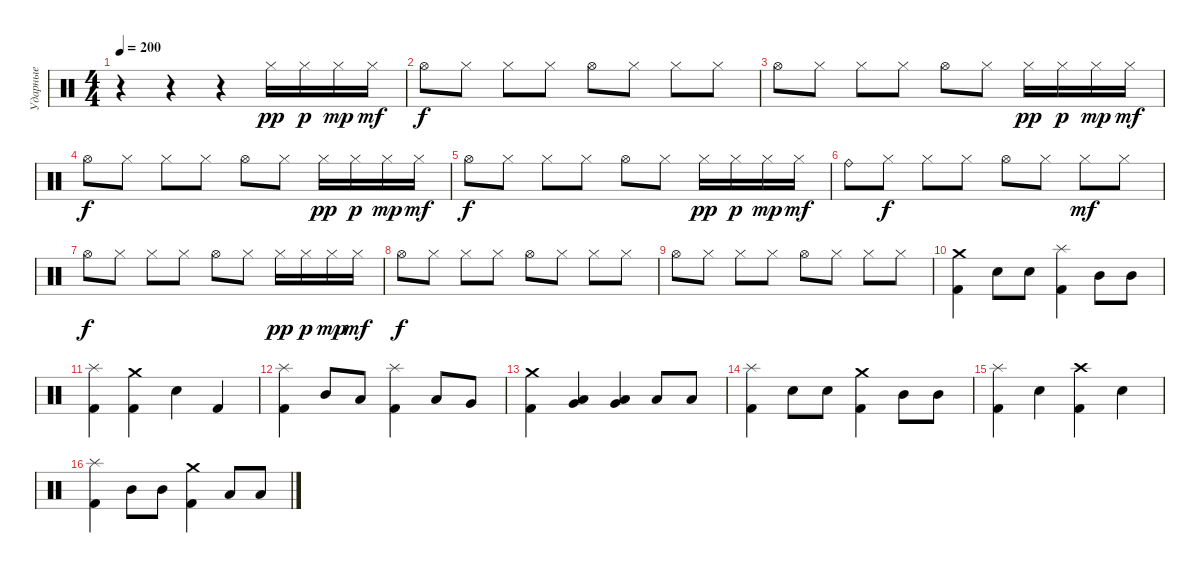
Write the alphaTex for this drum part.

\track ("Ударные" "Ударные") {instrument percussion}
\staff {score}
\articulation defaults
\ts (4 4)
\tempo 200
\clef neutral
\ks c
r.4{dy pp} r.4 r.4 "Hi-Hat (closed)".16 "Hi-Hat (closed)".16{dy p} "Hi-Hat (closed)".16{dy mp} "Hi-Hat (closed)".16{dy mf} |
"Hi-Hat (open)".8{dy f} "Hi-Hat (closed)".8 "Hi-Hat (closed)".8 "Hi-Hat (closed)".8 "Hi-Hat (open)".8 "Hi-Hat (closed)".8 "Hi-Hat (closed)".8 "Hi-Hat (closed)".8 |
"Hi-Hat (open)".8 "Hi-Hat (closed)".8 "Hi-Hat (closed)".8 "Hi-Hat (closed)".8 "Hi-Hat (open)".8 "Hi-Hat (closed)".8 "Hi-Hat (closed)".16{dy pp} "Hi-Hat (closed)".16{dy p} "Hi-Hat (closed)".16{dy mp} "Hi-Hat (closed)".16{dy mf} |
"Hi-Hat (open)".8{dy f} "Hi-Hat (closed)".8 "Hi-Hat (closed)".8 "Hi-Hat (closed)".8 "Hi-Hat (open)".8 "Hi-Hat (closed)".8 "Hi-Hat (closed)".16{dy pp} "Hi-Hat (closed)".16{dy p} "Hi-Hat (closed)".16{dy mp} "Hi-Hat (closed)".16{dy mf} |
"Hi-Hat (open)".8{dy f} "Hi-Hat (closed)".8 "Hi-Hat (closed)".8 "Hi-Hat (closed)".8 "Hi-Hat (open)".8 "Hi-Hat (closed)".8 "Hi-Hat (closed)".16{dy pp} "Hi-Hat (closed)".16{dy p} "Hi-Hat (closed)".16{dy mp} "Hi-Hat (closed)".16{dy mf} |
"Ride (bell)".8 "Hi-Hat (closed)".8{dy f} "Hi-Hat (closed)".8 "Hi-Hat (closed)".8 "Hi-Hat (open)".8 "Hi-Hat (closed)".8 "Hi-Hat (closed)".8{dy mf} "Hi-Hat (closed)".8 |
"Hi-Hat (open)".8{dy f} "Hi-Hat (closed)".8 "Hi-Hat (closed)".8 "Hi-Hat (closed)".8 "Hi-Hat (open)".8 "Hi-Hat (closed)".8 "Hi-Hat (closed)".16{dy pp} "Hi-Hat (closed)".16{dy p} "Hi-Hat (closed)".16{dy mp} "Hi-Hat (closed)".16{dy mf} |
"Hi-Hat (open)".8{dy f} "Hi-Hat (closed)".8 "Hi-Hat (closed)".8 "Hi-Hat (closed)".8 "Hi-Hat (open)".8 "Hi-Hat (closed)".8 "Hi-Hat (closed)".8 "Hi-Hat (closed)".8 |
"Hi-Hat (open)".8 "Hi-Hat (closed)".8 "Hi-Hat (closed)".8 "Hi-Hat (closed)".8 "Hi-Hat (open)".8 "Hi-Hat (closed)".8 "Hi-Hat (closed)".8 "Hi-Hat (closed)".8 |
("Crash medium (hit)" "Kick (hit) 2").4 "Electric Snare (hit)".8 "Electric Snare (hit)".8 ("Splash (hit)" "Kick (hit) 2").4 "Mid Tom (hit)".8 "Mid Tom (hit)".8 |
("Splash (hit)" "Kick (hit) 2").4 ("Crash medium (hit)" "Kick (hit) 2").4 "Electric Snare (hit)".4 "Kick (hit) 2".4 |
("Splash (hit)" "Kick (hit) 2").4 "Mid Tom (hit)".8 "Low Tom (hit)".8 ("Splash (hit)" "Kick (hit) 2").4 "Low Tom (hit)".8 "Very Low Tom (hit)".8 |
("Crash medium (hit)" "Kick (hit) 2").4 ("Very Low Tom (hit)" "Low Tom (hit)").4 ("Low Floor Tom (hit)" "Very Low Tom (hit)").4 "Low Floor Tom (hit)".8 "Low Floor Tom (hit)".8 |
("Splash (hit)" "Kick (hit) 2").4 "Electric Snare (hit)".8 "Electric Snare (hit)".8 ("Crash medium (hit)" "Kick (hit) 2").4 "Mid Tom (hit)".8 "Mid Tom (hit)".8 |
("Splash (hit)" "Kick (hit) 2").4 "Electric Snare (hit)".4 ("Crash high (hit)" "Kick (hit) 2").4 "Electric Snare (hit)".4 |
("Splash (hit)" "Kick (hit) 2").4 "Mid Tom (hit)".8 "Mid Tom (hit)".8 ("Crash medium (hit)" "Kick (hit) 2").4 "Low Tom (hit)".8 "Low Tom (hit)".8
